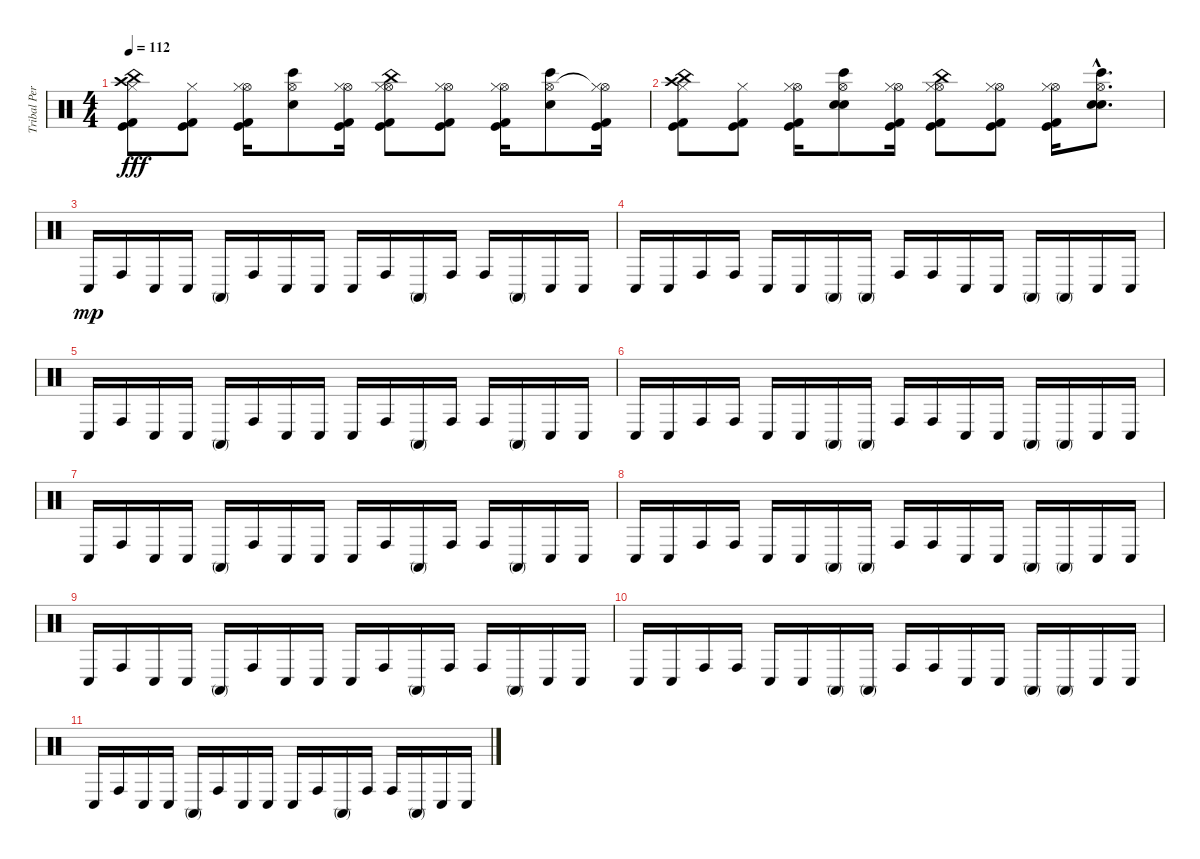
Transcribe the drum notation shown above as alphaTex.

\track ("Tribal Percussion" "Tribal Per") {instrument percussion}
\staff {score}
\articulation defaults
\ts (4 4)
\tempo 112
\clef neutral
\ks c
("China (hit)" "Crash high (hit)" "Kick (hit)" "Hi-Hat (closed)" "Kick (hit) 2").8{dy fff} ("Kick (hit)" "Hi-Hat (closed)" "Kick (hit) 2").8 ("Hi-Hat (open)" "Kick (hit)" "Hi-Hat (closed)" "Kick (hit) 2").16 ("Hi-Hat (open)" "Bongo High (hit)" "Snare (hit) 2").8 ("Hi-Hat (open)" "Kick (hit)" "Hi-Hat (closed)" "Kick (hit) 2").16 ("China (hit)" "Hi-Hat (open)" "Kick (hit)" "Hi-Hat (closed)" "Kick (hit) 2").8 ("Hi-Hat (open)" "Kick (hit)" "Hi-Hat (closed)" "Kick (hit) 2").8 ("Hi-Hat (open)" "Kick (hit)" "Hi-Hat (closed)" "Kick (hit) 2").16 ("Hi-Hat (open)" "Bongo High (hit)" "Snare (hit) 2").8 ("Hi-Hat (open)"{t} "Kick (hit)" "Hi-Hat (closed)" "Kick (hit) 2").16 |
("China (hit)" "Crash high (hit)" "Kick (hit)" "Hi-Hat (closed)" "Kick (hit) 2").8 ("Kick (hit)" "Hi-Hat (closed)" "Kick (hit) 2").8 ("Hi-Hat (open)" "Kick (hit)" "Hi-Hat (closed)" "Kick (hit) 2").16 ("Hi-Hat (open)" "Electric Snare (hit)" "Bongo High (hit)" "Snare (hit) 2").8 ("Hi-Hat (open)" "Kick (hit)" "Hi-Hat (closed)" "Kick (hit) 2").16 ("China (hit)" "Hi-Hat (open)" "Kick (hit)" "Hi-Hat (closed)" "Kick (hit) 2").8 ("Hi-Hat (open)" "Kick (hit)" "Hi-Hat (closed)" "Kick (hit) 2").8 ("Hi-Hat (open)" "Kick (hit)" "Hi-Hat (closed)" "Kick (hit) 2").16 ("Hi-Hat (open)"{hac} "Electric Snare (hit)"{hac} "Bongo High (hit)"{hac} "Snare (hit) 2"{hac}).8{d} |
"Conga low (hit)".16{dy mp} "Conga high (hit)".16 "Conga low (hit)".16 "Conga low (hit)".16 "Conga high (mute)".16 "Conga high (hit)".16 "Conga low (hit)".16 "Conga low (hit)".16 "Conga low (hit)".16 "Conga high (hit)".16 "Conga high (mute)".16 "Conga high (hit)".16 "Conga high (hit)".16 "Conga high (mute)".16 "Conga low (hit)".16 "Conga low (hit)".16 |
"Conga low (hit)".16 "Conga low (hit)".16 "Conga high (hit)".16 "Conga high (hit)".16 "Conga low (hit)".16 "Conga low (hit)".16 "Conga high (mute)".16 "Conga high (mute)".16 "Conga high (hit)".16 "Conga high (hit)".16 "Conga low (hit)".16 "Conga low (hit)".16 "Conga high (mute)".16 "Conga high (mute)".16 "Conga low (hit)".16 "Conga low (hit)".16 |
"Conga low (hit)".16 "Conga high (hit)".16 "Conga low (hit)".16 "Conga low (hit)".16 "Conga high (mute)".16 "Conga high (hit)".16 "Conga low (hit)".16 "Conga low (hit)".16 "Conga low (hit)".16 "Conga high (hit)".16 "Conga high (mute)".16 "Conga high (hit)".16 "Conga high (hit)".16 "Conga high (mute)".16 "Conga low (hit)".16 "Conga low (hit)".16 |
"Conga low (hit)".16 "Conga low (hit)".16 "Conga high (hit)".16 "Conga high (hit)".16 "Conga low (hit)".16 "Conga low (hit)".16 "Conga high (mute)".16 "Conga high (mute)".16 "Conga high (hit)".16 "Conga high (hit)".16 "Conga low (hit)".16 "Conga low (hit)".16 "Conga high (mute)".16 "Conga high (mute)".16 "Conga low (hit)".16 "Conga low (hit)".16 |
"Conga low (hit)".16 "Conga high (hit)".16 "Conga low (hit)".16 "Conga low (hit)".16 "Conga high (mute)".16 "Conga high (hit)".16 "Conga low (hit)".16 "Conga low (hit)".16 "Conga low (hit)".16 "Conga high (hit)".16 "Conga high (mute)".16 "Conga high (hit)".16 "Conga high (hit)".16 "Conga high (mute)".16 "Conga low (hit)".16 "Conga low (hit)".16 |
"Conga low (hit)".16 "Conga low (hit)".16 "Conga high (hit)".16 "Conga high (hit)".16 "Conga low (hit)".16 "Conga low (hit)".16 "Conga high (mute)".16 "Conga high (mute)".16 "Conga high (hit)".16 "Conga high (hit)".16 "Conga low (hit)".16 "Conga low (hit)".16 "Conga high (mute)".16 "Conga high (mute)".16 "Conga low (hit)".16 "Conga low (hit)".16 |
"Conga low (hit)".16 "Conga high (hit)".16 "Conga low (hit)".16 "Conga low (hit)".16 "Conga high (mute)".16 "Conga high (hit)".16 "Conga low (hit)".16 "Conga low (hit)".16 "Conga low (hit)".16 "Conga high (hit)".16 "Conga high (mute)".16 "Conga high (hit)".16 "Conga high (hit)".16 "Conga high (mute)".16 "Conga low (hit)".16 "Conga low (hit)".16 |
"Conga low (hit)".16 "Conga low (hit)".16 "Conga high (hit)".16 "Conga high (hit)".16 "Conga low (hit)".16 "Conga low (hit)".16 "Conga high (mute)".16 "Conga high (mute)".16 "Conga high (hit)".16 "Conga high (hit)".16 "Conga low (hit)".16 "Conga low (hit)".16 "Conga high (mute)".16 "Conga high (mute)".16 "Conga low (hit)".16 "Conga low (hit)".16 |
"Conga low (hit)".16 "Conga high (hit)".16 "Conga low (hit)".16 "Conga low (hit)".16 "Conga high (mute)".16 "Conga high (hit)".16 "Conga low (hit)".16 "Conga low (hit)".16 "Conga low (hit)".16 "Conga high (hit)".16 "Conga high (mute)".16 "Conga high (hit)".16 "Conga high (hit)".16 "Conga high (mute)".16 "Conga low (hit)".16 "Conga low (hit)".16
